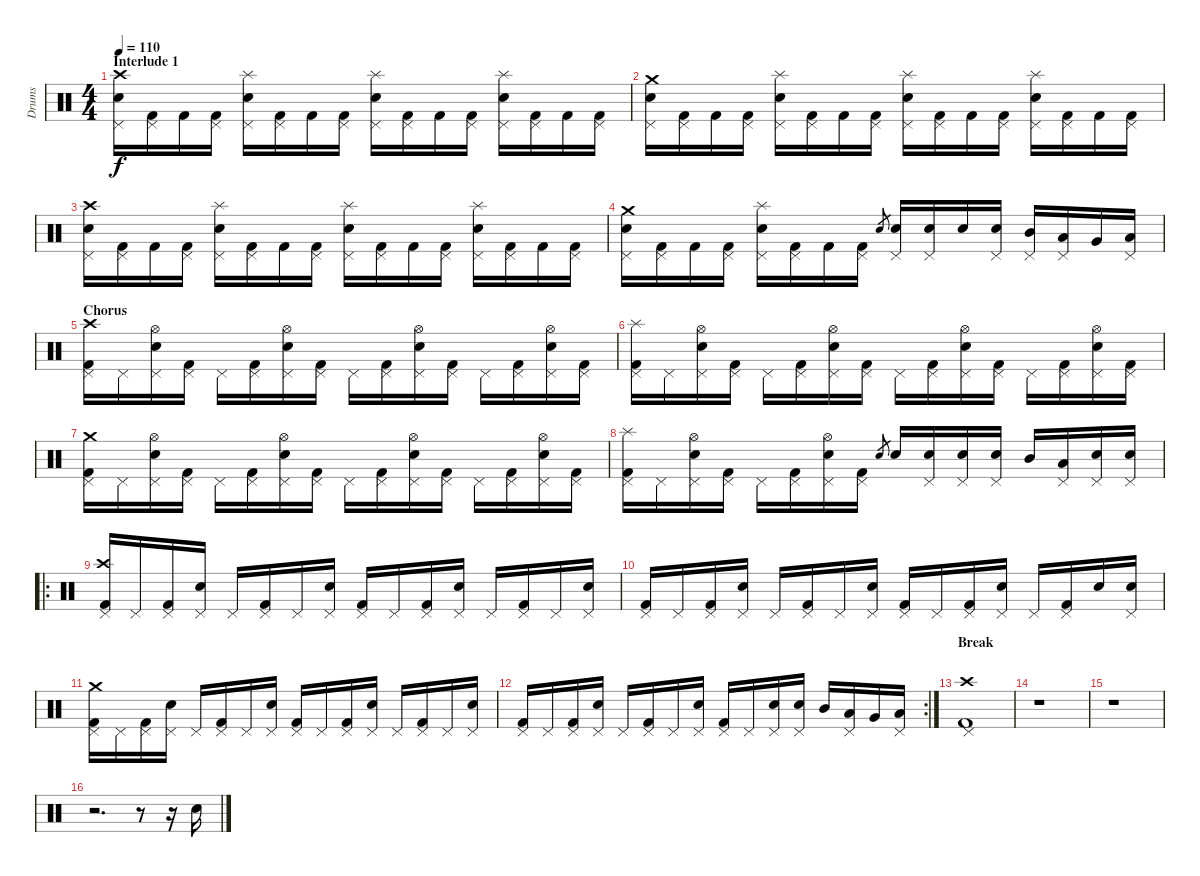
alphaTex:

\track ("Drums" "Drums") {instrument percussion}
\staff {score}
\articulation defaults
\ts (4 4)
\section ("" "Interlude 1")
\tempo 110
\clef neutral
\ks c
("Snare (hit) 2" "Pedal Hi-Hat (hit)" "Crash high (hit)").16{dy f} ("Kick (hit) 2" "Pedal Hi-Hat (hit)").16 "Kick (hit) 2".16 ("Kick (hit) 2" "Pedal Hi-Hat (hit)").16 ("Snare (hit) 2" "Pedal Hi-Hat (hit)" "Splash (hit)").16 ("Kick (hit) 2" "Pedal Hi-Hat (hit)").16 "Kick (hit) 2".16 ("Kick (hit) 2" "Pedal Hi-Hat (hit)").16 ("Snare (hit) 2" "Pedal Hi-Hat (hit)" "Splash (hit)").16 ("Kick (hit) 2" "Pedal Hi-Hat (hit)").16 "Kick (hit) 2".16 ("Kick (hit) 2" "Pedal Hi-Hat (hit)").16 ("Snare (hit) 2" "Pedal Hi-Hat (hit)" "Splash (hit)").16 ("Kick (hit) 2" "Pedal Hi-Hat (hit)").16 "Kick (hit) 2".16 ("Kick (hit) 2" "Pedal Hi-Hat (hit)").16 |
("Snare (hit) 2" "Pedal Hi-Hat (hit)" "Crash medium (hit)").16 ("Kick (hit) 2" "Pedal Hi-Hat (hit)").16 "Kick (hit) 2".16 ("Kick (hit) 2" "Pedal Hi-Hat (hit)").16 ("Snare (hit) 2" "Pedal Hi-Hat (hit)" "Splash (hit)").16 ("Kick (hit) 2" "Pedal Hi-Hat (hit)").16 "Kick (hit) 2".16 ("Kick (hit) 2" "Pedal Hi-Hat (hit)").16 ("Snare (hit) 2" "Pedal Hi-Hat (hit)" "Splash (hit)").16 ("Kick (hit) 2" "Pedal Hi-Hat (hit)").16 "Kick (hit) 2".16 ("Kick (hit) 2" "Pedal Hi-Hat (hit)").16 ("Snare (hit) 2" "Pedal Hi-Hat (hit)" "Splash (hit)").16 ("Kick (hit) 2" "Pedal Hi-Hat (hit)").16 "Kick (hit) 2".16 ("Kick (hit) 2" "Pedal Hi-Hat (hit)").16 |
("Snare (hit) 2" "Pedal Hi-Hat (hit)" "Crash high (hit)").16 ("Kick (hit) 2" "Pedal Hi-Hat (hit)").16 "Kick (hit) 2".16 ("Kick (hit) 2" "Pedal Hi-Hat (hit)").16 ("Snare (hit) 2" "Pedal Hi-Hat (hit)" "Splash (hit)").16 ("Kick (hit) 2" "Pedal Hi-Hat (hit)").16 "Kick (hit) 2".16 ("Kick (hit) 2" "Pedal Hi-Hat (hit)").16 ("Snare (hit) 2" "Pedal Hi-Hat (hit)" "Splash (hit)").16 ("Kick (hit) 2" "Pedal Hi-Hat (hit)").16 "Kick (hit) 2".16 ("Kick (hit) 2" "Pedal Hi-Hat (hit)").16 ("Snare (hit) 2" "Pedal Hi-Hat (hit)" "Splash (hit)").16 ("Kick (hit) 2" "Pedal Hi-Hat (hit)").16 "Kick (hit) 2".16 ("Kick (hit) 2" "Pedal Hi-Hat (hit)").16 |
("Snare (hit) 2" "Pedal Hi-Hat (hit)" "Crash medium (hit)").16 ("Kick (hit) 2" "Pedal Hi-Hat (hit)").16 "Kick (hit) 2".16 ("Kick (hit) 2" "Pedal Hi-Hat (hit)").16 ("Snare (hit) 2" "Pedal Hi-Hat (hit)" "Splash (hit)").16 ("Kick (hit) 2" "Pedal Hi-Hat (hit)").16 "Kick (hit) 2".16 ("Kick (hit) 2" "Pedal Hi-Hat (hit)").16 "Snare (hit) 2".8{gr} ("Snare (hit) 2" "Pedal Hi-Hat (hit)").16 ("Snare (hit) 2" "Pedal Hi-Hat (hit)").16 "Snare (hit) 2".16 ("Snare (hit) 2" "Pedal Hi-Hat (hit)").16 ("Mid Tom (hit)" "Pedal Hi-Hat (hit)").16 ("Low Tom (hit)" "Pedal Hi-Hat (hit)").16 "Very Low Tom (hit)".16 ("Low Floor Tom (hit)" "Pedal Hi-Hat (hit)").16 |
\section ("" "Chorus")
("Kick (hit) 2" "Pedal Hi-Hat (hit)" "Crash high (hit)").16 "Pedal Hi-Hat (hit)".16 ("Snare (hit) 2" "Pedal Hi-Hat (hit)" "Hi-Hat (open)").16 ("Kick (hit) 2" "Pedal Hi-Hat (hit)").16 "Pedal Hi-Hat (hit)".16 ("Kick (hit) 2" "Pedal Hi-Hat (hit)").16 ("Snare (hit) 2" "Pedal Hi-Hat (hit)" "Hi-Hat (open)").16 ("Kick (hit) 2" "Pedal Hi-Hat (hit)").16 "Pedal Hi-Hat (hit)".16 ("Kick (hit) 2" "Pedal Hi-Hat (hit)").16 ("Snare (hit) 2" "Pedal Hi-Hat (hit)" "Hi-Hat (open)").16 ("Kick (hit) 2" "Pedal Hi-Hat (hit)").16 "Pedal Hi-Hat (hit)".16 ("Kick (hit) 2" "Pedal Hi-Hat (hit)").16 ("Snare (hit) 2" "Pedal Hi-Hat (hit)" "Hi-Hat (open)").16 ("Kick (hit) 2" "Pedal Hi-Hat (hit)").16 |
("Kick (hit) 2" "Pedal Hi-Hat (hit)" "Splash (hit)").16 "Pedal Hi-Hat (hit)".16 ("Snare (hit) 2" "Pedal Hi-Hat (hit)" "Hi-Hat (open)").16 ("Kick (hit) 2" "Pedal Hi-Hat (hit)").16 "Pedal Hi-Hat (hit)".16 ("Kick (hit) 2" "Pedal Hi-Hat (hit)").16 ("Snare (hit) 2" "Pedal Hi-Hat (hit)" "Hi-Hat (open)").16 ("Kick (hit) 2" "Pedal Hi-Hat (hit)").16 "Pedal Hi-Hat (hit)".16 ("Kick (hit) 2" "Pedal Hi-Hat (hit)").16 ("Snare (hit) 2" "Pedal Hi-Hat (hit)" "Hi-Hat (open)").16 ("Kick (hit) 2" "Pedal Hi-Hat (hit)").16 "Pedal Hi-Hat (hit)".16 ("Kick (hit) 2" "Pedal Hi-Hat (hit)").16 ("Snare (hit) 2" "Pedal Hi-Hat (hit)" "Hi-Hat (open)").16 ("Kick (hit) 2" "Pedal Hi-Hat (hit)").16 |
("Kick (hit) 2" "Pedal Hi-Hat (hit)" "Crash medium (hit)").16 "Pedal Hi-Hat (hit)".16 ("Snare (hit) 2" "Pedal Hi-Hat (hit)" "Hi-Hat (open)").16 ("Kick (hit) 2" "Pedal Hi-Hat (hit)").16 "Pedal Hi-Hat (hit)".16 ("Kick (hit) 2" "Pedal Hi-Hat (hit)").16 ("Snare (hit) 2" "Pedal Hi-Hat (hit)" "Hi-Hat (open)").16 ("Kick (hit) 2" "Pedal Hi-Hat (hit)").16 "Pedal Hi-Hat (hit)".16 ("Kick (hit) 2" "Pedal Hi-Hat (hit)").16 ("Snare (hit) 2" "Pedal Hi-Hat (hit)" "Hi-Hat (open)").16 ("Kick (hit) 2" "Pedal Hi-Hat (hit)").16 "Pedal Hi-Hat (hit)".16 ("Kick (hit) 2" "Pedal Hi-Hat (hit)").16 ("Snare (hit) 2" "Pedal Hi-Hat (hit)" "Hi-Hat (open)").16 ("Kick (hit) 2" "Pedal Hi-Hat (hit)").16 |
("Kick (hit) 2" "Pedal Hi-Hat (hit)" "Splash (hit)").16 "Pedal Hi-Hat (hit)".16 ("Snare (hit) 2" "Pedal Hi-Hat (hit)" "Hi-Hat (open)").16 ("Kick (hit) 2" "Pedal Hi-Hat (hit)").16 "Pedal Hi-Hat (hit)".16 ("Kick (hit) 2" "Pedal Hi-Hat (hit)").16 ("Snare (hit) 2" "Pedal Hi-Hat (hit)" "Hi-Hat (open)").16 ("Kick (hit) 2" "Pedal Hi-Hat (hit)").16 "Snare (hit) 2".8{gr} "Snare (hit) 2".16 ("Snare (hit) 2" "Pedal Hi-Hat (hit)").16 ("Snare (hit) 2" "Pedal Hi-Hat (hit)").16 ("Snare (hit) 2" "Pedal Hi-Hat (hit)").16 "Mid Tom (hit)".16 ("Low Tom (hit)" "Pedal Hi-Hat (hit)").16 ("Snare (hit) 2" "Pedal Hi-Hat (hit)").16 ("Snare (hit) 2" "Pedal Hi-Hat (hit)").16 |
\ro
("Kick (hit) 2" "Pedal Hi-Hat (hit)" "Crash high (hit)").16 "Pedal Hi-Hat (hit)".16 ("Kick (hit) 2" "Pedal Hi-Hat (hit)").16 ("Snare (hit) 2" "Pedal Hi-Hat (hit)").16 "Pedal Hi-Hat (hit)".16 ("Kick (hit) 2" "Pedal Hi-Hat (hit)").16 "Pedal Hi-Hat (hit)".16 ("Snare (hit) 2" "Pedal Hi-Hat (hit)").16 ("Kick (hit) 2" "Pedal Hi-Hat (hit)").16 "Pedal Hi-Hat (hit)".16 ("Kick (hit) 2" "Pedal Hi-Hat (hit)").16 ("Snare (hit) 2" "Pedal Hi-Hat (hit)").16 "Pedal Hi-Hat (hit)".16 ("Kick (hit) 2" "Pedal Hi-Hat (hit)").16 "Pedal Hi-Hat (hit)".16 ("Snare (hit) 2" "Pedal Hi-Hat (hit)").16 |
("Kick (hit) 2" "Pedal Hi-Hat (hit)").16 "Pedal Hi-Hat (hit)".16 ("Kick (hit) 2" "Pedal Hi-Hat (hit)").16 ("Snare (hit) 2" "Pedal Hi-Hat (hit)").16 "Pedal Hi-Hat (hit)".16 ("Kick (hit) 2" "Pedal Hi-Hat (hit)").16 "Pedal Hi-Hat (hit)".16 ("Snare (hit) 2" "Pedal Hi-Hat (hit)").16 ("Kick (hit) 2" "Pedal Hi-Hat (hit)").16 "Pedal Hi-Hat (hit)".16 ("Kick (hit) 2" "Pedal Hi-Hat (hit)").16 ("Snare (hit) 2" "Pedal Hi-Hat (hit)").16 "Pedal Hi-Hat (hit)".16 ("Kick (hit) 2" "Pedal Hi-Hat (hit)").16 "Snare (hit) 2".16 ("Snare (hit) 2" "Pedal Hi-Hat (hit)").16 |
("Kick (hit) 2" "Pedal Hi-Hat (hit)" "Crash medium (hit)").16 "Pedal Hi-Hat (hit)".16 ("Kick (hit) 2" "Pedal Hi-Hat (hit)").16 ("Snare (hit) 2" "Pedal Hi-Hat (hit)").16 "Pedal Hi-Hat (hit)".16 ("Kick (hit) 2" "Pedal Hi-Hat (hit)").16 "Pedal Hi-Hat (hit)".16 ("Snare (hit) 2" "Pedal Hi-Hat (hit)").16 ("Kick (hit) 2" "Pedal Hi-Hat (hit)").16 "Pedal Hi-Hat (hit)".16 ("Kick (hit) 2" "Pedal Hi-Hat (hit)").16 ("Snare (hit) 2" "Pedal Hi-Hat (hit)").16 "Pedal Hi-Hat (hit)".16 ("Kick (hit) 2" "Pedal Hi-Hat (hit)").16 "Pedal Hi-Hat (hit)".16 ("Snare (hit) 2" "Pedal Hi-Hat (hit)").16 |
\rc 2
("Kick (hit) 2" "Pedal Hi-Hat (hit)").16 "Pedal Hi-Hat (hit)".16 ("Kick (hit) 2" "Pedal Hi-Hat (hit)").16 ("Snare (hit) 2" "Pedal Hi-Hat (hit)").16 "Pedal Hi-Hat (hit)".16 ("Kick (hit) 2" "Pedal Hi-Hat (hit)").16 "Pedal Hi-Hat (hit)".16 ("Snare (hit) 2" "Pedal Hi-Hat (hit)").16 ("Kick (hit) 2" "Pedal Hi-Hat (hit)").16 "Pedal Hi-Hat (hit)".16 ("Snare (hit) 2" "Pedal Hi-Hat (hit)").16 ("Snare (hit) 2" "Pedal Hi-Hat (hit)").16 "Mid Tom (hit)".16 ("Low Tom (hit)" "Pedal Hi-Hat (hit)").16 "Very Low Tom (hit)".16 ("Low Floor Tom (hit)" "Pedal Hi-Hat (hit)").16 |
\section ("" "Break")
("Kick (hit) 2" "Pedal Hi-Hat (hit)" "Crash high (hit)").1 |
r.1 |
r.1 |
r.2{d} r.8 r.16 "Snare (hit) 2".16
